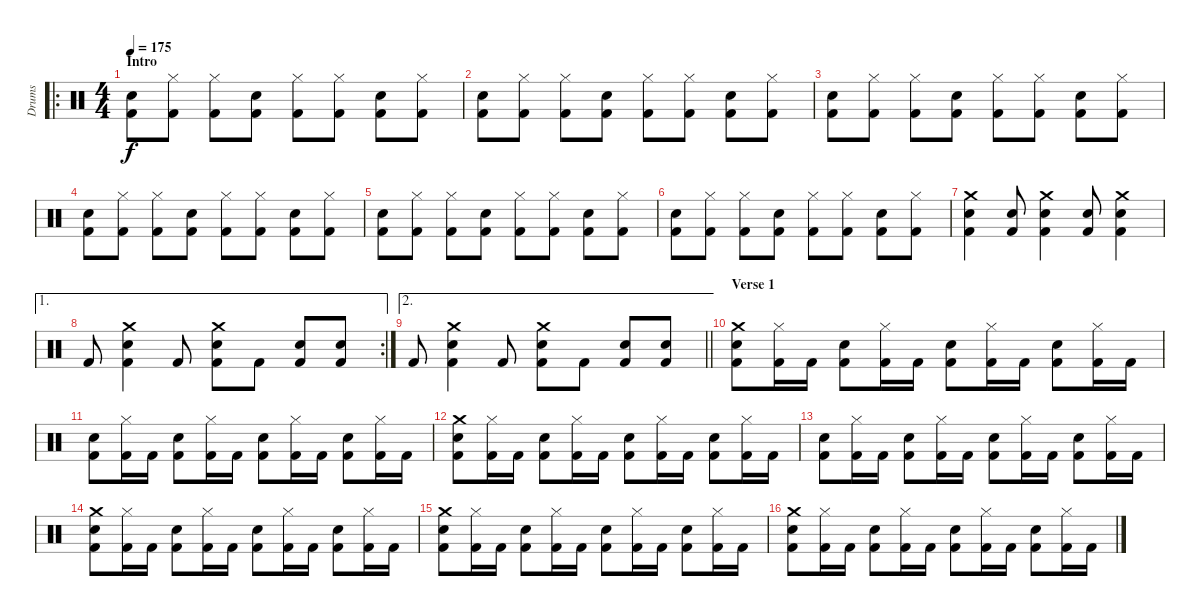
\track ("Drums" "Drums") {instrument percussion}
\staff {score}
\articulation defaults
\ro
\ts (4 4)
\section ("" "Intro")
\tempo 175
\clef neutral
\ks c
("Kick (hit) 2" "Snare (hit) 2").8{dy f} ("Kick (hit) 2" "Hi-Hat (closed)").8 ("Kick (hit) 2" "Hi-Hat (closed)").8 ("Kick (hit) 2" "Snare (hit) 2").8 ("Kick (hit) 2" "Hi-Hat (closed)").8 ("Kick (hit) 2" "Hi-Hat (closed)").8 ("Kick (hit) 2" "Snare (hit) 2").8 ("Kick (hit) 2" "Hi-Hat (closed)").8 |
("Kick (hit) 2" "Snare (hit) 2").8 ("Kick (hit) 2" "Hi-Hat (closed)").8 ("Kick (hit) 2" "Hi-Hat (closed)").8 ("Kick (hit) 2" "Snare (hit) 2").8 ("Kick (hit) 2" "Hi-Hat (closed)").8 ("Kick (hit) 2" "Hi-Hat (closed)").8 ("Kick (hit) 2" "Snare (hit) 2").8 ("Kick (hit) 2" "Hi-Hat (closed)").8 |
("Kick (hit) 2" "Snare (hit) 2").8 ("Kick (hit) 2" "Hi-Hat (closed)").8 ("Kick (hit) 2" "Hi-Hat (closed)").8 ("Kick (hit) 2" "Snare (hit) 2").8 ("Kick (hit) 2" "Hi-Hat (closed)").8 ("Kick (hit) 2" "Hi-Hat (closed)").8 ("Kick (hit) 2" "Snare (hit) 2").8 ("Kick (hit) 2" "Hi-Hat (closed)").8 |
("Kick (hit) 2" "Snare (hit) 2").8 ("Kick (hit) 2" "Hi-Hat (closed)").8 ("Kick (hit) 2" "Hi-Hat (closed)").8 ("Kick (hit) 2" "Snare (hit) 2").8 ("Kick (hit) 2" "Hi-Hat (closed)").8 ("Kick (hit) 2" "Hi-Hat (closed)").8 ("Kick (hit) 2" "Snare (hit) 2").8 ("Kick (hit) 2" "Hi-Hat (closed)").8 |
("Kick (hit) 2" "Snare (hit) 2").8 ("Kick (hit) 2" "Hi-Hat (closed)").8 ("Kick (hit) 2" "Hi-Hat (closed)").8 ("Kick (hit) 2" "Snare (hit) 2").8 ("Kick (hit) 2" "Hi-Hat (closed)").8 ("Kick (hit) 2" "Hi-Hat (closed)").8 ("Kick (hit) 2" "Snare (hit) 2").8 ("Kick (hit) 2" "Hi-Hat (closed)").8 |
("Kick (hit) 2" "Snare (hit) 2").8 ("Kick (hit) 2" "Hi-Hat (closed)").8 ("Kick (hit) 2" "Hi-Hat (closed)").8 ("Kick (hit) 2" "Snare (hit) 2").8 ("Kick (hit) 2" "Hi-Hat (closed)").8 ("Kick (hit) 2" "Hi-Hat (closed)").8 ("Kick (hit) 2" "Snare (hit) 2").8 ("Kick (hit) 2" "Hi-Hat (closed)").8 |
("Kick (hit) 2" "Snare (hit) 2" "Crash medium (hit)").4 ("Kick (hit) 2" "Snare (hit) 2").8 ("Kick (hit) 2" "Crash medium (hit)" "Snare (hit) 2").4 ("Kick (hit) 2" "Snare (hit) 2").8 ("Kick (hit) 2" "Snare (hit) 2" "Crash medium (hit)").4 |
\ae 1
\rc 2 "Kick (hit) 2".8
("Kick (hit) 2" "Crash medium (hit)" "Snare (hit) 2").4 "Kick (hit) 2".8 ("Kick (hit) 2" "Snare (hit) 2" "Crash medium (hit)").8 "Kick (hit) 2".8 ("Kick (hit) 2" "Snare (hit) 2").8 ("Kick (hit) 2" "Snare (hit) 2").8 |
\ae 2
\barLineRight lightlight "Kick (hit) 2".8
("Kick (hit) 2" "Crash medium (hit)" "Snare (hit) 2").4 "Kick (hit) 2".8 ("Kick (hit) 2" "Snare (hit) 2" "Crash medium (hit)").8 "Kick (hit) 2".8 ("Kick (hit) 2" "Snare (hit) 2").8 ("Kick (hit) 2" "Snare (hit) 2").8 |
\section ("" "Verse 1")
("Kick (hit) 2" "Snare (hit) 2" "Crash medium (hit)").8 ("Kick (hit) 2" "Hi-Hat (closed)").16 "Kick (hit) 2".16 ("Kick (hit) 2" "Snare (hit) 2").8 ("Kick (hit) 2" "Hi-Hat (closed)").16 "Kick (hit) 2".16 ("Kick (hit) 2" "Snare (hit) 2").8 ("Kick (hit) 2" "Hi-Hat (closed)").16 "Kick (hit) 2".16 ("Kick (hit) 2" "Snare (hit) 2").8 ("Kick (hit) 2" "Hi-Hat (closed)").16 "Kick (hit) 2".16 |
("Kick (hit) 2" "Snare (hit) 2").8 ("Kick (hit) 2" "Hi-Hat (closed)").16 "Kick (hit) 2".16 ("Kick (hit) 2" "Snare (hit) 2").8 ("Kick (hit) 2" "Hi-Hat (closed)").16 "Kick (hit) 2".16 ("Kick (hit) 2" "Snare (hit) 2").8 ("Kick (hit) 2" "Hi-Hat (closed)").16 "Kick (hit) 2".16 ("Kick (hit) 2" "Snare (hit) 2").8 ("Kick (hit) 2" "Hi-Hat (closed)").16 "Kick (hit) 2".16 |
("Kick (hit) 2" "Crash medium (hit)" "Snare (hit) 2").8 ("Kick (hit) 2" "Hi-Hat (closed)").16 "Kick (hit) 2".16 ("Kick (hit) 2" "Snare (hit) 2").8 ("Kick (hit) 2" "Hi-Hat (closed)").16 "Kick (hit) 2".16 ("Kick (hit) 2" "Snare (hit) 2").8 ("Kick (hit) 2" "Hi-Hat (closed)").16 "Kick (hit) 2".16 ("Kick (hit) 2" "Snare (hit) 2").8 ("Kick (hit) 2" "Hi-Hat (closed)").16 "Kick (hit) 2".16 |
("Kick (hit) 2" "Snare (hit) 2").8 ("Kick (hit) 2" "Hi-Hat (closed)").16 "Kick (hit) 2".16 ("Kick (hit) 2" "Snare (hit) 2").8 ("Kick (hit) 2" "Hi-Hat (closed)").16 "Kick (hit) 2".16 ("Kick (hit) 2" "Snare (hit) 2").8 ("Kick (hit) 2" "Hi-Hat (closed)").16 "Kick (hit) 2".16 ("Kick (hit) 2" "Snare (hit) 2").8 ("Kick (hit) 2" "Hi-Hat (closed)").16 "Kick (hit) 2".16 |
("Kick (hit) 2" "Crash medium (hit)" "Snare (hit) 2").8 ("Kick (hit) 2" "Hi-Hat (closed)").16 "Kick (hit) 2".16 ("Kick (hit) 2" "Snare (hit) 2").8 ("Kick (hit) 2" "Hi-Hat (closed)").16 "Kick (hit) 2".16 ("Kick (hit) 2" "Snare (hit) 2").8 ("Kick (hit) 2" "Hi-Hat (closed)").16 "Kick (hit) 2".16 ("Kick (hit) 2" "Snare (hit) 2").8 ("Kick (hit) 2" "Hi-Hat (closed)").16 "Kick (hit) 2".16 |
("Kick (hit) 2" "Snare (hit) 2" "Crash medium (hit)").8 ("Kick (hit) 2" "Hi-Hat (closed)").16 "Kick (hit) 2".16 ("Kick (hit) 2" "Snare (hit) 2").8 ("Kick (hit) 2" "Hi-Hat (closed)").16 "Kick (hit) 2".16 ("Kick (hit) 2" "Snare (hit) 2").8 ("Kick (hit) 2" "Hi-Hat (closed)").16 "Kick (hit) 2".16 ("Kick (hit) 2" "Snare (hit) 2").8 ("Kick (hit) 2" "Hi-Hat (closed)").16 "Kick (hit) 2".16 |
("Kick (hit) 2" "Snare (hit) 2" "Crash medium (hit)").8 ("Kick (hit) 2" "Hi-Hat (closed)").16 "Kick (hit) 2".16 ("Kick (hit) 2" "Snare (hit) 2").8 ("Kick (hit) 2" "Hi-Hat (closed)").16 "Kick (hit) 2".16 ("Kick (hit) 2" "Snare (hit) 2").8 ("Kick (hit) 2" "Hi-Hat (closed)").16 "Kick (hit) 2".16 ("Kick (hit) 2" "Snare (hit) 2").8 ("Kick (hit) 2" "Hi-Hat (closed)").16 "Kick (hit) 2".16
